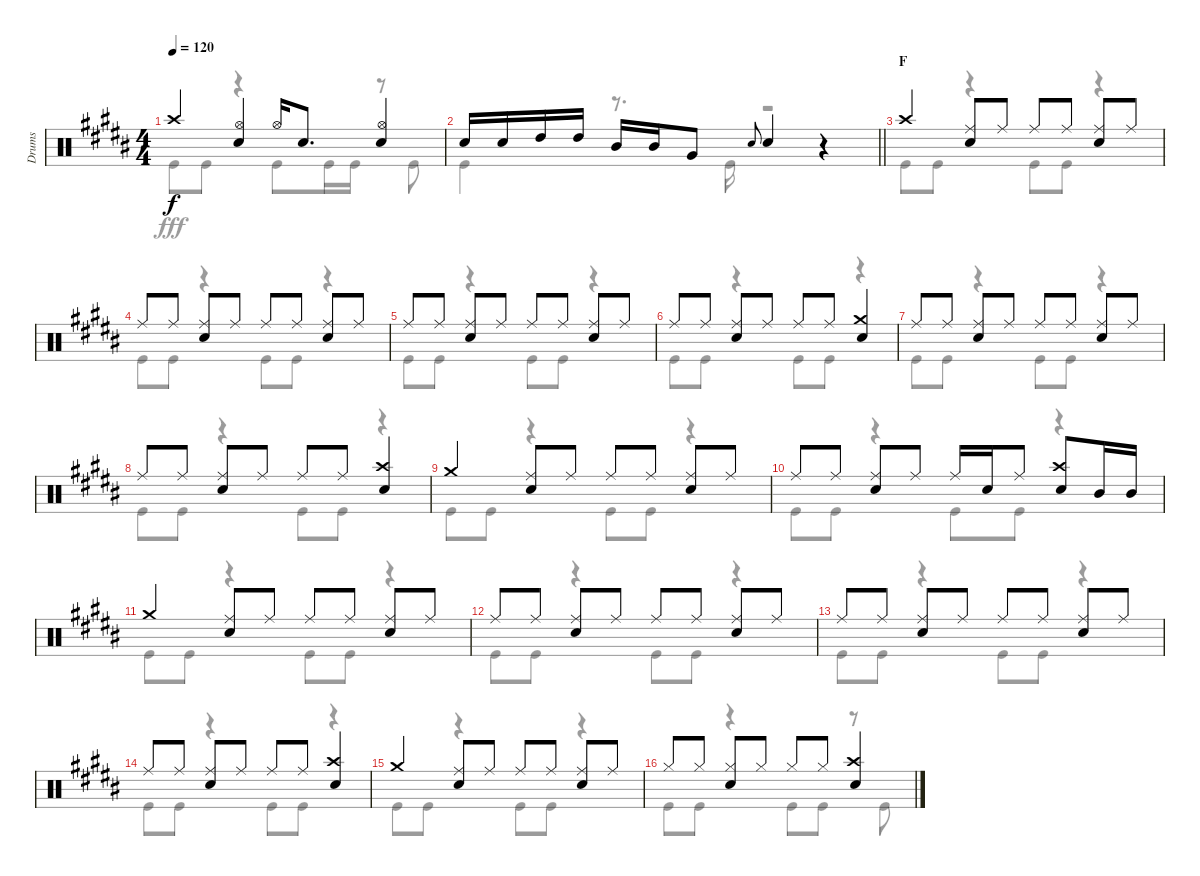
\track ("Drums" "Drums") {instrument percussion}
\staff {score}
\articulation defaults
\voice
\ts (4 4)
\tempo 120
\clef neutral
\ks b "Crash high (hit)".4{dy f}
("Hi-Hat (open)" "Snare (hit) 2").4 "Hi-Hat (open)".16 "Snare (hit) 2".8{d} ("Hi-Hat (open)" "Snare (hit) 2").4 |
\barLineRight lightlight "Snare (hit) 2".16 "Snare (hit) 2".16 "High Tom (hit)".16 "High Tom (hit)".16 "Mid Tom (hit)".16 "Mid Tom (hit)".16 "Very Low Tom (hit)".8 "Snare (hit) 2".8{gr onbeat} "Snare (hit) 2".4
r.4 |
\section ("" "F")
"Crash high (hit)".4 ("Ride (middle)" "Snare (hit) 2").8 "Ride (middle)".8 "Ride (middle)".8 "Ride (middle)".8 ("Ride (middle)" "Snare (hit) 2").8 "Ride (middle)".8 |
"Ride (middle)".8 "Ride (middle)".8 ("Ride (middle)" "Snare (hit) 2").8 "Ride (middle)".8 "Ride (middle)".8 "Ride (middle)".8 ("Ride (middle)" "Snare (hit) 2").8 "Ride (middle)".8 |
"Ride (middle)".8 "Ride (middle)".8 ("Ride (middle)" "Snare (hit) 2").8 "Ride (middle)".8 "Ride (middle)".8 "Ride (middle)".8 ("Ride (middle)" "Snare (hit) 2").8 "Ride (middle)".8 |
"Ride (middle)".8 "Ride (middle)".8 ("Ride (middle)" "Snare (hit) 2").8 "Ride (middle)".8 "Ride (middle)".8 "Ride (middle)".8 ("Crash medium (hit)" "Snare (hit) 2").4 |
"Ride (middle)".8 "Ride (middle)".8 ("Ride (middle)" "Snare (hit) 2").8 "Ride (middle)".8 "Ride (middle)".8 "Ride (middle)".8 ("Ride (middle)" "Snare (hit) 2").8 "Ride (middle)".8 |
"Ride (middle)".8 "Ride (middle)".8 ("Ride (middle)" "Snare (hit) 2").8 "Ride (middle)".8 "Ride (middle)".8 "Ride (middle)".8 ("Crash high (hit)" "Snare (hit) 2").4 |
"Crash medium (hit)".4 ("Ride (middle)" "Snare (hit) 2").8 "Ride (middle)".8 "Ride (middle)".8 "Ride (middle)".8 ("Ride (middle)" "Snare (hit) 2").8 "Ride (middle)".8 |
"Ride (middle)".8 "Ride (middle)".8 ("Ride (middle)" "Snare (hit) 2").8 "Ride (middle)".8 "Ride (middle)".16 "Snare (hit) 2".16 "Ride (middle)".8 ("Crash high (hit)" "Snare (hit) 2").8 "Mid Tom (hit)".16 "Mid Tom (hit)".16 |
"Crash medium (hit)".4 ("Ride (middle)" "Snare (hit) 2").8 "Ride (middle)".8 "Ride (middle)".8 "Ride (middle)".8 ("Ride (middle)" "Snare (hit) 2").8 "Ride (middle)".8 |
"Ride (middle)".8 "Ride (middle)".8 ("Ride (middle)" "Snare (hit) 2").8 "Ride (middle)".8 "Ride (middle)".8 "Ride (middle)".8 ("Ride (middle)" "Snare (hit) 2").8 "Ride (middle)".8 |
"Ride (middle)".8 "Ride (middle)".8 ("Ride (middle)" "Snare (hit) 2").8 "Ride (middle)".8 "Ride (middle)".8 "Ride (middle)".8 ("Ride (middle)" "Snare (hit) 2").8 "Ride (middle)".8 |
"Ride (middle)".8 "Ride (middle)".8 ("Ride (middle)" "Snare (hit) 2").8 "Ride (middle)".8 "Ride (middle)".8 "Ride (middle)".8 ("Crash high (hit)" "Snare (hit) 2").4 |
"Crash medium (hit)".4 ("Ride (middle)" "Snare (hit) 2").8 "Ride (middle)".8 "Ride (middle)".8 "Ride (middle)".8 ("Ride (middle)" "Snare (hit) 2").8 "Ride (middle)".8 |
"Hi-Hat (closed)".8 "Hi-Hat (closed)".8 ("Hi-Hat (closed)" "Snare (hit) 2").8 "Hi-Hat (closed)".8 "Hi-Hat (closed)".8 "Hi-Hat (closed)".8 ("Crash high (hit)" "Snare (hit) 2").4
\voice
\clef neutral
\ottava regular
\simile none
\ks b "Kick (hit)".8{dy fff} "Kick (hit)".8
r.4 "Kick (hit)".8 "Kick (hit)".16 "Kick (hit)".16 r.8 "Kick (hit)".8 |
\barLineRight lightlight "Kick (hit)".4
r.8{d} "Kick (hit)".16 r.2 |
"Kick (hit)".8 "Kick (hit)".8 r.4 "Kick (hit)".8 "Kick (hit)".8 r.4 |
"Kick (hit)".8 "Kick (hit)".8 r.4 "Kick (hit)".8 "Kick (hit)".8 r.4 |
"Kick (hit)".8 "Kick (hit)".8 r.4 "Kick (hit)".8 "Kick (hit)".8 r.4 |
"Kick (hit)".8 "Kick (hit)".8 r.4 "Kick (hit)".8 "Kick (hit)".8 r.4 |
"Kick (hit)".8 "Kick (hit)".8 r.4 "Kick (hit)".8 "Kick (hit)".8 r.4 |
"Kick (hit)".8 "Kick (hit)".8 r.4 "Kick (hit)".8 "Kick (hit)".8 r.4 |
"Kick (hit)".8 "Kick (hit)".8 r.4 "Kick (hit)".8 "Kick (hit)".8 r.4 |
"Kick (hit)".8 "Kick (hit)".8 r.4 "Kick (hit)".8 "Kick (hit)".8 r.4 |
"Kick (hit)".8 "Kick (hit)".8 r.4 "Kick (hit)".8 "Kick (hit)".8 r.4 |
"Kick (hit)".8 "Kick (hit)".8 r.4 "Kick (hit)".8 "Kick (hit)".8 r.4 |
"Kick (hit)".8 "Kick (hit)".8 r.4 "Kick (hit)".8 "Kick (hit)".8 r.4 |
"Kick (hit)".8 "Kick (hit)".8 r.4 "Kick (hit)".8 "Kick (hit)".8 r.4 |
"Kick (hit)".8 "Kick (hit)".8 r.4 "Kick (hit)".8 "Kick (hit)".8 r.4 |
"Kick (hit)".8 "Kick (hit)".8 r.4 "Kick (hit)".8 "Kick (hit)".8 r.8 "Kick (hit)".8
